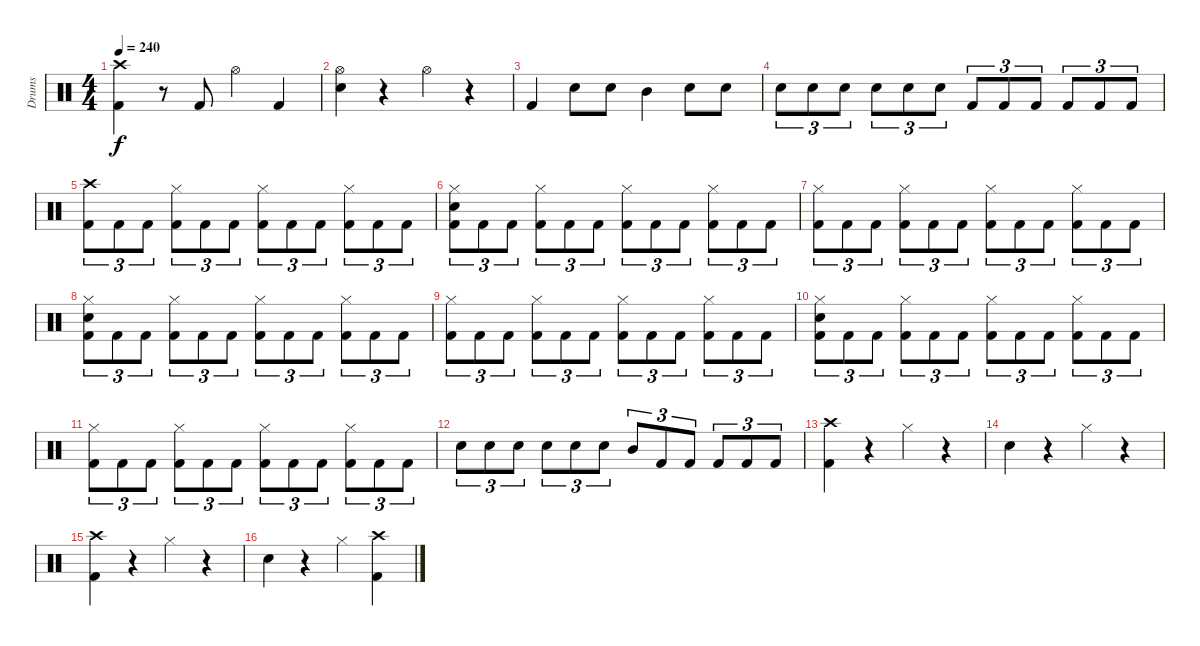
\track ("Drums" "Drums") {instrument percussion}
\staff {score}
\articulation defaults
\ts (4 4)
\tempo 240
\clef neutral
\ks c
("Crash high (hit)" "Kick (hit) 2").4{dy f} r.8 "Kick (hit) 2".8 "Hi-Hat (open)".4 "Kick (hit) 2".4 |
("Hi-Hat (open)" "Snare (hit) 2").4 r.4 "Hi-Hat (open)".4 r.4 |
"Kick (hit) 2".4 "Snare (hit) 2".8 "Snare (hit) 2".8 "Mid Tom (hit)".4 "Snare (hit) 2".8 "Snare (hit) 2".8 |
"Snare (hit) 2".8{tu (3 2)} "Snare (hit) 2".8{tu (3 2)} "Snare (hit) 2".8{tu (3 2)} "Snare (hit) 2".8{tu (3 2)} "Snare (hit) 2".8{tu (3 2)} "Snare (hit) 2".8{tu (3 2)} "Kick (hit) 2".8{tu (3 2)} "Kick (hit) 2".8{tu (3 2)} "Kick (hit) 2".8{tu (3 2)} "Kick (hit) 2".8{tu (3 2)} "Kick (hit) 2".8{tu (3 2)} "Kick (hit) 2".8{tu (3 2)} |
("Crash high (hit)" "Kick (hit) 2").8{tu (3 2)} "Kick (hit) 2".8{tu (3 2)} "Kick (hit) 2".8{tu (3 2)} ("Hi-Hat (closed)" "Kick (hit) 2").8{tu (3 2)} "Kick (hit) 2".8{tu (3 2)} "Kick (hit) 2".8{tu (3 2)} ("Hi-Hat (closed)" "Kick (hit) 2").8{tu (3 2)} "Kick (hit) 2".8{tu (3 2)} "Kick (hit) 2".8{tu (3 2)} ("Hi-Hat (closed)" "Kick (hit) 2").8{tu (3 2)} "Kick (hit) 2".8{tu (3 2)} "Kick (hit) 2".8{tu (3 2)} |
("Hi-Hat (closed)" "Snare (hit) 2" "Kick (hit) 2").8{tu (3 2)} "Kick (hit) 2".8{tu (3 2)} "Kick (hit) 2".8{tu (3 2)} ("Hi-Hat (closed)" "Kick (hit) 2").8{tu (3 2)} "Kick (hit) 2".8{tu (3 2)} "Kick (hit) 2".8{tu (3 2)} ("Hi-Hat (closed)" "Kick (hit) 2").8{tu (3 2)} "Kick (hit) 2".8{tu (3 2)} "Kick (hit) 2".8{tu (3 2)} ("Hi-Hat (closed)" "Kick (hit) 2").8{tu (3 2)} "Kick (hit) 2".8{tu (3 2)} "Kick (hit) 2".8{tu (3 2)} |
("Hi-Hat (closed)" "Kick (hit) 2").8{tu (3 2)} "Kick (hit) 2".8{tu (3 2)} "Kick (hit) 2".8{tu (3 2)} ("Hi-Hat (closed)" "Kick (hit) 2").8{tu (3 2)} "Kick (hit) 2".8{tu (3 2)} "Kick (hit) 2".8{tu (3 2)} ("Hi-Hat (closed)" "Kick (hit) 2").8{tu (3 2)} "Kick (hit) 2".8{tu (3 2)} "Kick (hit) 2".8{tu (3 2)} ("Hi-Hat (closed)" "Kick (hit) 2").8{tu (3 2)} "Kick (hit) 2".8{tu (3 2)} "Kick (hit) 2".8{tu (3 2)} |
("Hi-Hat (closed)" "Snare (hit) 2" "Kick (hit) 2").8{tu (3 2)} "Kick (hit) 2".8{tu (3 2)} "Kick (hit) 2".8{tu (3 2)} ("Hi-Hat (closed)" "Kick (hit) 2").8{tu (3 2)} "Kick (hit) 2".8{tu (3 2)} "Kick (hit) 2".8{tu (3 2)} ("Hi-Hat (closed)" "Kick (hit) 2").8{tu (3 2)} "Kick (hit) 2".8{tu (3 2)} "Kick (hit) 2".8{tu (3 2)} ("Hi-Hat (closed)" "Kick (hit) 2").8{tu (3 2)} "Kick (hit) 2".8{tu (3 2)} "Kick (hit) 2".8{tu (3 2)} |
("Hi-Hat (closed)" "Kick (hit) 2").8{tu (3 2)} "Kick (hit) 2".8{tu (3 2)} "Kick (hit) 2".8{tu (3 2)} ("Hi-Hat (closed)" "Kick (hit) 2").8{tu (3 2)} "Kick (hit) 2".8{tu (3 2)} "Kick (hit) 2".8{tu (3 2)} ("Hi-Hat (closed)" "Kick (hit) 2").8{tu (3 2)} "Kick (hit) 2".8{tu (3 2)} "Kick (hit) 2".8{tu (3 2)} ("Hi-Hat (closed)" "Kick (hit) 2").8{tu (3 2)} "Kick (hit) 2".8{tu (3 2)} "Kick (hit) 2".8{tu (3 2)} |
("Hi-Hat (closed)" "Snare (hit) 2" "Kick (hit) 2").8{tu (3 2)} "Kick (hit) 2".8{tu (3 2)} "Kick (hit) 2".8{tu (3 2)} ("Hi-Hat (closed)" "Kick (hit) 2").8{tu (3 2)} "Kick (hit) 2".8{tu (3 2)} "Kick (hit) 2".8{tu (3 2)} ("Hi-Hat (closed)" "Kick (hit) 2").8{tu (3 2)} "Kick (hit) 2".8{tu (3 2)} "Kick (hit) 2".8{tu (3 2)} ("Hi-Hat (closed)" "Kick (hit) 2").8{tu (3 2)} "Kick (hit) 2".8{tu (3 2)} "Kick (hit) 2".8{tu (3 2)} |
("Hi-Hat (closed)" "Kick (hit) 2").8{tu (3 2)} "Kick (hit) 2".8{tu (3 2)} "Kick (hit) 2".8{tu (3 2)} ("Hi-Hat (closed)" "Kick (hit) 2").8{tu (3 2)} "Kick (hit) 2".8{tu (3 2)} "Kick (hit) 2".8{tu (3 2)} ("Hi-Hat (closed)" "Kick (hit) 2").8{tu (3 2)} "Kick (hit) 2".8{tu (3 2)} "Kick (hit) 2".8{tu (3 2)} ("Hi-Hat (closed)" "Kick (hit) 2").8{tu (3 2)} "Kick (hit) 2".8{tu (3 2)} "Kick (hit) 2".8{tu (3 2)} |
"Snare (hit) 2".8{tu (3 2)} "Snare (hit) 2".8{tu (3 2)} "Snare (hit) 2".8{tu (3 2)} "Snare (hit) 2".8{tu (3 2)} "Snare (hit) 2".8{tu (3 2)} "Snare (hit) 2".8{tu (3 2)} "Mid Tom (hit)".8{tu (3 2)} "Kick (hit) 2".8{tu (3 2)} "Kick (hit) 2".8{tu (3 2)} "Kick (hit) 2".8{tu (3 2)} "Kick (hit) 2".8{tu (3 2)} "Kick (hit) 2".8{tu (3 2)} |
("Crash high (hit)" "Kick (hit) 2").4 r.4 "Hi-Hat (closed)".4 r.4 |
"Snare (hit) 2".4 r.4 "Hi-Hat (closed)".4 r.4 |
("Crash high (hit)" "Kick (hit) 2").4 r.4 "Hi-Hat (closed)".4 r.4 |
"Snare (hit) 2".4 r.4 "Hi-Hat (closed)".4 ("Crash high (hit)" "Kick (hit) 2").4
